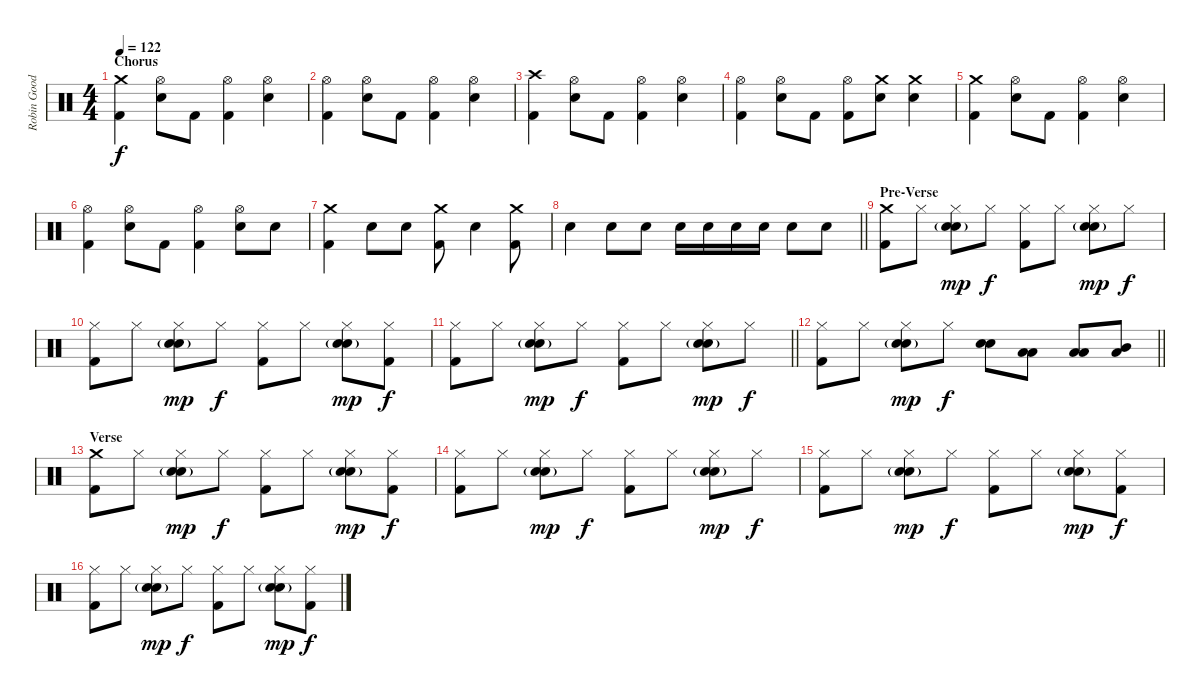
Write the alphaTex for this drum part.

\track ("Robin Goodridge: Drums" "Robin Good") {instrument percussion}
\staff {score}
\articulation defaults
\ts (4 4)
\section ("" "Chorus")
\tempo 122
\clef neutral
\ks c
("Crash medium (hit)" "Kick (hit) 2").4{dy f} ("Hi-Hat (open)" "Electric Snare (hit)").8 "Kick (hit) 2".8 ("Hi-Hat (open)" "Kick (hit) 2").4 ("Hi-Hat (open)" "Electric Snare (hit)").4 |
("Hi-Hat (open)" "Kick (hit) 2").4 ("Hi-Hat (open)" "Electric Snare (hit)").8 "Kick (hit) 2".8 ("Hi-Hat (open)" "Kick (hit) 2").4 ("Hi-Hat (open)" "Electric Snare (hit)").4 |
("Crash high (hit)" "Kick (hit) 2").4 ("Hi-Hat (open)" "Electric Snare (hit)").8 "Kick (hit) 2".8 ("Hi-Hat (open)" "Kick (hit) 2").4 ("Hi-Hat (open)" "Electric Snare (hit)").4 |
("Hi-Hat (open)" "Kick (hit) 2").4 ("Hi-Hat (open)" "Electric Snare (hit)").8 "Kick (hit) 2".8 ("Hi-Hat (open)" "Kick (hit) 2").8 ("Crash medium (hit)" "Electric Snare (hit)").8 ("Crash medium (hit)" "Electric Snare (hit)").4 |
("Crash medium (hit)" "Kick (hit) 2").4 ("Hi-Hat (open)" "Electric Snare (hit)").8 "Kick (hit) 2".8 ("Hi-Hat (open)" "Kick (hit) 2").4 ("Hi-Hat (open)" "Electric Snare (hit)").4 |
("Hi-Hat (open)" "Kick (hit) 2").4 ("Hi-Hat (open)" "Electric Snare (hit)").8 "Kick (hit) 2".8 ("Hi-Hat (open)" "Kick (hit) 2").4 ("Hi-Hat (open)" "Electric Snare (hit)").8 "Electric Snare (hit)".8 |
("Crash medium (hit)" "Kick (hit) 2").4 "Electric Snare (hit)".8 "Electric Snare (hit)".8 ("Crash medium (hit)" "Kick (hit) 2").8 "Electric Snare (hit)".4 ("Crash medium (hit)" "Kick (hit) 2").8 |
\barLineRight lightlight "Electric Snare (hit)".4 "Electric Snare (hit)".8 "Electric Snare (hit)".8 "Electric Snare (hit)".16 "Electric Snare (hit)".16 "Electric Snare (hit)".16 "Electric Snare (hit)".16 "Electric Snare (hit)".8 "Electric Snare (hit)".8
|
\section ("" "Pre-Verse")
("Crash medium (hit)" "Kick (hit) 2").8 "Hi-Hat (closed)".8 ("Hi-Hat (closed)" "Electric Snare (hit)" "Hand Clap (hit)"{g}).8{dy mp} "Hi-Hat (closed)".8{dy f} ("Hi-Hat (closed)" "Kick (hit) 2").8 "Hi-Hat (closed)".8 ("Hi-Hat (closed)" "Electric Snare (hit)" "Hand Clap (hit)"{g}).8{dy mp} "Hi-Hat (closed)".8{dy f} |
("Hi-Hat (closed)" "Kick (hit) 2").8 "Hi-Hat (closed)".8 ("Hi-Hat (closed)" "Electric Snare (hit)" "Hand Clap (hit)"{g}).8{dy mp} "Hi-Hat (closed)".8{dy f} ("Hi-Hat (closed)" "Kick (hit) 2").8 "Hi-Hat (closed)".8 ("Hi-Hat (closed)" "Electric Snare (hit)" "Hand Clap (hit)"{g}).8{dy mp} ("Hi-Hat (closed)" "Kick (hit) 2").8{dy f} |
\barLineRight lightlight
("Hi-Hat (closed)" "Kick (hit) 2").8 "Hi-Hat (closed)".8 ("Hi-Hat (closed)" "Electric Snare (hit)" "Hand Clap (hit)"{g}).8{dy mp} "Hi-Hat (closed)".8{dy f} ("Hi-Hat (closed)" "Kick (hit) 2").8 "Hi-Hat (closed)".8 ("Hi-Hat (closed)" "Electric Snare (hit)" "Hand Clap (hit)"{g}).8{dy mp} "Hi-Hat (closed)".8{dy f} |
\barLineRight lightlight
("Hi-Hat (closed)" "Kick (hit) 2").8 "Hi-Hat (closed)".8 ("Hi-Hat (closed)" "Electric Snare (hit)" "Hand Clap (hit)"{g}).8{dy mp} "Hi-Hat (closed)".8{dy f} ("Electric Snare (hit)" "Electric Snare (hit)").8 ("Low Tom (hit)" "Low Floor Tom (hit)").8 ("Low Tom (hit)" "Low Floor Tom (hit)").8 ("Mid Tom (hit)" "Low Floor Tom (hit)").8 |
\section ("" "Verse")
("Crash medium (hit)" "Kick (hit) 2").8 "Hi-Hat (closed)".8 ("Hi-Hat (closed)" "Electric Snare (hit)" "Hand Clap (hit)"{g}).8{dy mp} "Hi-Hat (closed)".8{dy f} ("Hi-Hat (closed)" "Kick (hit) 2").8 "Hi-Hat (closed)".8 ("Hi-Hat (closed)" "Electric Snare (hit)" "Hand Clap (hit)"{g}).8{dy mp} ("Hi-Hat (closed)" "Kick (hit) 2").8{dy f} |
("Hi-Hat (closed)" "Kick (hit) 2").8 "Hi-Hat (closed)".8 ("Hi-Hat (closed)" "Electric Snare (hit)" "Hand Clap (hit)"{g}).8{dy mp} "Hi-Hat (closed)".8{dy f} ("Hi-Hat (closed)" "Kick (hit) 2").8 "Hi-Hat (closed)".8 ("Hi-Hat (closed)" "Electric Snare (hit)" "Hand Clap (hit)"{g}).8{dy mp} "Hi-Hat (closed)".8{dy f} |
("Hi-Hat (closed)" "Kick (hit) 2").8 "Hi-Hat (closed)".8 ("Hi-Hat (closed)" "Electric Snare (hit)" "Hand Clap (hit)"{g}).8{dy mp} "Hi-Hat (closed)".8{dy f} ("Hi-Hat (closed)" "Kick (hit) 2").8 "Hi-Hat (closed)".8 ("Hi-Hat (closed)" "Electric Snare (hit)" "Hand Clap (hit)"{g}).8{dy mp} ("Hi-Hat (closed)" "Kick (hit) 2").8{dy f} |
("Hi-Hat (closed)" "Kick (hit) 2").8 "Hi-Hat (closed)".8 ("Hi-Hat (closed)" "Electric Snare (hit)" "Hand Clap (hit)"{g}).8{dy mp} "Hi-Hat (closed)".8{dy f} ("Hi-Hat (closed)" "Kick (hit) 2").8 "Hi-Hat (closed)".8 ("Hi-Hat (closed)" "Electric Snare (hit)" "Hand Clap (hit)"{g}).8{dy mp} ("Hi-Hat (closed)" "Kick (hit) 2").8{dy f}
